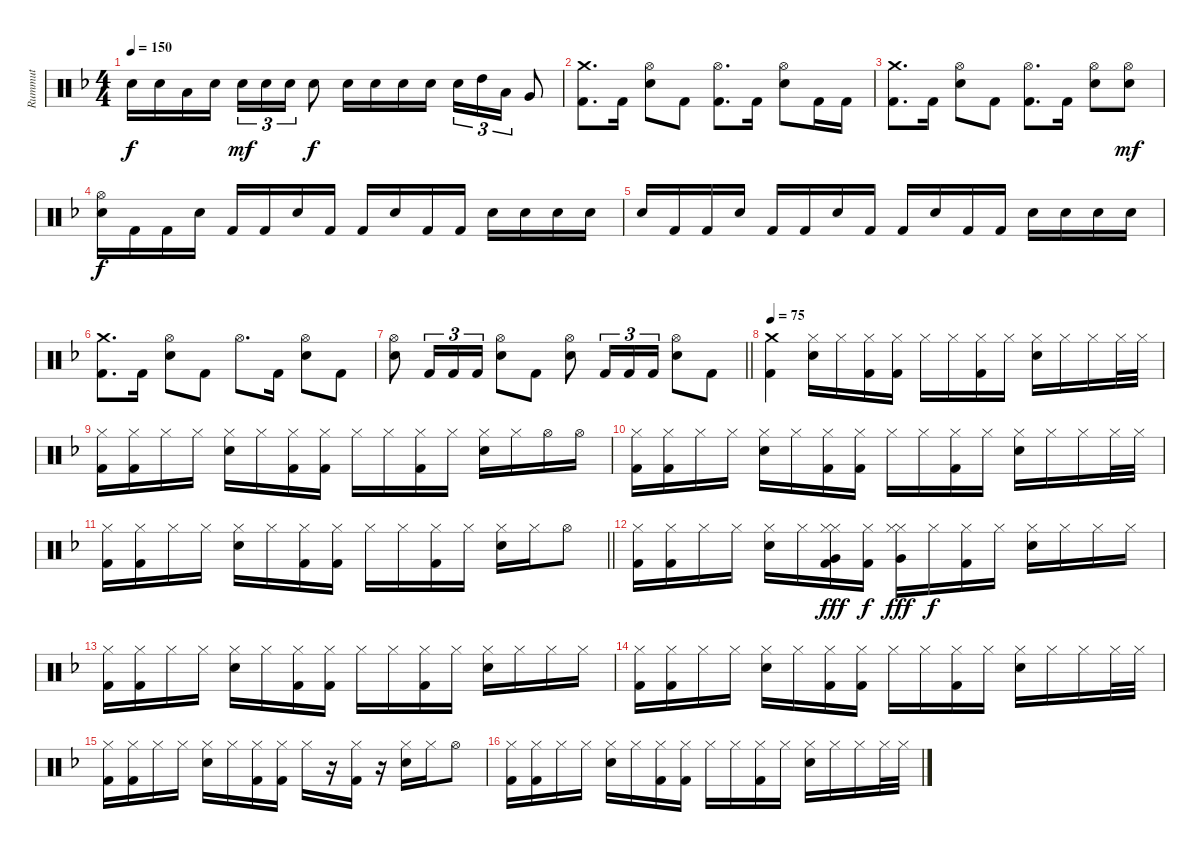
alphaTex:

\track ("Rummut" "Rummut") {instrument percussion}
\staff {score}
\articulation defaults
\ts (4 4)
\tempo 150
\clef neutral
\ks dminor "Snare (hit) 2".16{dy f} "Snare (hit) 2".16 "Low Tom (hit)".16 "Snare (hit) 2".16 "Snare (hit) 2".16{tu (3 2) dy mf} "Snare (hit) 2".16{tu (3 2)} "Snare (hit) 2".16{tu (3 2)} "Snare (hit) 2".8{dy f} "Snare (hit) 2".16 "Snare (hit) 2".16 "Snare (hit) 2".16 "Snare (hit) 2".16 "Snare (hit) 2".16{tu (3 2)} "High Tom (hit)".16{tu (3 2)} "Low Tom (hit)".16{tu (3 2)} "Very Low Tom (hit)".8
|
("Crash medium (hit)" "Kick (hit) 2").8{d} "Kick (hit) 2".16 ("Hi-Hat (open)" "Snare (hit) 2").8 "Kick (hit) 2".8 ("Hi-Hat (open)" "Kick (hit) 2").8{d} "Kick (hit) 2".16 ("Hi-Hat (open)" "Snare (hit) 2").8 "Kick (hit) 2".16 "Kick (hit) 2".16 |
("Crash medium (hit)" "Kick (hit) 2").8{d} "Kick (hit) 2".16 ("Hi-Hat (open)" "Snare (hit) 2").8 "Kick (hit) 2".8 ("Hi-Hat (open)" "Kick (hit) 2").8{d} "Kick (hit) 2".16 ("Hi-Hat (open)" "Snare (hit) 2").8 ("Hi-Hat (open)" "Snare (hit) 2").8{dy mf} |
("Hi-Hat (open)" "Snare (hit) 2").16{dy f} "Kick (hit) 2".16 "Kick (hit) 2".16 "Snare (hit) 2".16 "Kick (hit) 2".16 "Kick (hit) 2".16 "Snare (hit) 2".16 "Kick (hit) 2".16 "Kick (hit) 2".16 "Snare (hit) 2".16 "Kick (hit) 2".16 "Kick (hit) 2".16 "Snare (hit) 2".16 "Snare (hit) 2".16 "Snare (hit) 2".16 "Snare (hit) 2".16 |
"Snare (hit) 2".16 "Kick (hit) 2".16 "Kick (hit) 2".16 "Snare (hit) 2".16 "Kick (hit) 2".16 "Kick (hit) 2".16 "Snare (hit) 2".16 "Kick (hit) 2".16 "Kick (hit) 2".16 "Snare (hit) 2".16 "Kick (hit) 2".16 "Kick (hit) 2".16 "Snare (hit) 2".16 "Snare (hit) 2".16 "Snare (hit) 2".16 "Snare (hit) 2".16 |
("Crash medium (hit)" "Kick (hit) 2").8{d} "Kick (hit) 2".16 ("Hi-Hat (open)" "Snare (hit) 2").8 "Kick (hit) 2".8 "Hi-Hat (open)".8{d} "Kick (hit) 2".16 ("Hi-Hat (open)" "Snare (hit) 2").8 "Kick (hit) 2".8 |
\barLineRight lightlight
("Hi-Hat (open)" "Snare (hit) 2").8 "Kick (hit) 2".16{tu (3 2)} "Kick (hit) 2".16{tu (3 2)} "Kick (hit) 2".16{tu (3 2)} ("Hi-Hat (open)" "Snare (hit) 2").8 "Kick (hit) 2".8 ("Hi-Hat (open)" "Snare (hit) 2").8 "Kick (hit) 2".16{tu (3 2)} "Kick (hit) 2".16{tu (3 2)} "Kick (hit) 2".16{tu (3 2)} ("Hi-Hat (open)" "Snare (hit) 2").8 "Kick (hit) 2".8 |
\tempo 75
("Crash medium (hit)" "Kick (hit) 2").4 ("Hi-Hat (closed)" "Snare (hit) 2").16 "Hi-Hat (closed)".16 ("Hi-Hat (closed)" "Kick (hit) 2").16 ("Hi-Hat (closed)" "Kick (hit) 2").16 "Hi-Hat (closed)".16 "Hi-Hat (closed)".16 ("Hi-Hat (closed)" "Kick (hit) 2").16 "Hi-Hat (closed)".16 ("Hi-Hat (closed)" "Snare (hit) 2").16 "Hi-Hat (closed)".16 "Hi-Hat (closed)".16 "Hi-Hat (closed)".32 "Hi-Hat (closed)".32 |
("Hi-Hat (closed)" "Kick (hit) 2").16 ("Hi-Hat (closed)" "Kick (hit) 2").16 "Hi-Hat (closed)".16 "Hi-Hat (closed)".16 ("Hi-Hat (closed)" "Snare (hit) 2").16 "Hi-Hat (closed)".16 ("Hi-Hat (closed)" "Kick (hit) 2").16 ("Hi-Hat (closed)" "Kick (hit) 2").16 "Hi-Hat (closed)".16 "Hi-Hat (closed)".16 ("Hi-Hat (closed)" "Kick (hit) 2").16 "Hi-Hat (closed)".16 ("Hi-Hat (closed)" "Snare (hit) 2").16 "Hi-Hat (closed)".16 "Hi-Hat (open)".16 "Hi-Hat (open)".16 |
("Hi-Hat (closed)" "Kick (hit) 2").16 ("Hi-Hat (closed)" "Kick (hit) 2").16 "Hi-Hat (closed)".16 "Hi-Hat (closed)".16 ("Hi-Hat (closed)" "Snare (hit) 2").16 "Hi-Hat (closed)".16 ("Hi-Hat (closed)" "Kick (hit) 2").16 ("Hi-Hat (closed)" "Kick (hit) 2").16 "Hi-Hat (closed)".16 "Hi-Hat (closed)".16 ("Hi-Hat (closed)" "Kick (hit) 2").16 "Hi-Hat (closed)".16 ("Hi-Hat (closed)" "Snare (hit) 2").16 "Hi-Hat (closed)".16 "Hi-Hat (closed)".16 "Hi-Hat (closed)".32 "Hi-Hat (closed)".32 |
\barLineRight lightlight
("Hi-Hat (closed)" "Kick (hit) 2").16 ("Hi-Hat (closed)" "Kick (hit) 2").16 "Hi-Hat (closed)".16 "Hi-Hat (closed)".16 ("Hi-Hat (closed)" "Snare (hit) 2").16 "Hi-Hat (closed)".16 ("Hi-Hat (closed)" "Kick (hit) 2").16 ("Hi-Hat (closed)" "Kick (hit) 2").16 "Hi-Hat (closed)".16 "Hi-Hat (closed)".16 ("Hi-Hat (closed)" "Kick (hit) 2").16 "Hi-Hat (closed)".16 ("Hi-Hat (closed)" "Snare (hit) 2").16 "Hi-Hat (closed)".16 "Hi-Hat (open)".8 |
("Hi-Hat (closed)" "Kick (hit) 2").16 ("Hi-Hat (closed)" "Kick (hit) 2").16 "Hi-Hat (closed)".16 "Hi-Hat (closed)".16 ("Hi-Hat (closed)" "Snare (hit) 2").16 "Hi-Hat (closed)".16 ("Hi-Hat (closed)" "Very Low Tom (hit)" "Hi-Hat (closed)" "Kick (hit) 2").16{dy fff} ("Hi-Hat (closed)" "Kick (hit) 2").16{dy f} ("Hi-Hat (closed)" "Very Low Tom (hit)" "Hi-Hat (closed)").16{dy fff} "Hi-Hat (closed)".16{dy f} ("Hi-Hat (closed)" "Kick (hit) 2").16 "Hi-Hat (closed)".16 ("Hi-Hat (closed)" "Snare (hit) 2").16 "Hi-Hat (closed)".16 "Hi-Hat (closed)".16 "Hi-Hat (closed)".16 |
("Hi-Hat (closed)" "Kick (hit) 2").16 ("Hi-Hat (closed)" "Kick (hit) 2").16 "Hi-Hat (closed)".16 "Hi-Hat (closed)".16 ("Hi-Hat (closed)" "Snare (hit) 2").16 "Hi-Hat (closed)".16 ("Hi-Hat (closed)" "Kick (hit) 2").16 ("Hi-Hat (closed)" "Kick (hit) 2").16 "Hi-Hat (closed)".16 "Hi-Hat (closed)".16 ("Hi-Hat (closed)" "Kick (hit) 2").16 "Hi-Hat (closed)".16 ("Hi-Hat (closed)" "Snare (hit) 2").16 "Hi-Hat (closed)".16 "Hi-Hat (closed)".16 "Hi-Hat (closed)".16 |
("Hi-Hat (closed)" "Kick (hit) 2").16 ("Hi-Hat (closed)" "Kick (hit) 2").16 "Hi-Hat (closed)".16 "Hi-Hat (closed)".16 ("Hi-Hat (closed)" "Snare (hit) 2").16 "Hi-Hat (closed)".16 ("Hi-Hat (closed)" "Kick (hit) 2").16 ("Hi-Hat (closed)" "Kick (hit) 2").16 "Hi-Hat (closed)".16 "Hi-Hat (closed)".16 ("Hi-Hat (closed)" "Kick (hit) 2").16 "Hi-Hat (closed)".16 ("Hi-Hat (closed)" "Snare (hit) 2").16 "Hi-Hat (closed)".16 "Hi-Hat (closed)".16 "Hi-Hat (closed)".32 "Hi-Hat (closed)".32 |
("Hi-Hat (closed)" "Kick (hit) 2").16 ("Hi-Hat (closed)" "Kick (hit) 2").16 "Hi-Hat (closed)".16 "Hi-Hat (closed)".16 ("Hi-Hat (closed)" "Snare (hit) 2").16 "Hi-Hat (closed)".16 ("Hi-Hat (closed)" "Kick (hit) 2").16 ("Hi-Hat (closed)" "Kick (hit) 2").16 "Hi-Hat (closed)".16 r.16 ("Hi-Hat (closed)" "Kick (hit) 2").16 r.16 ("Hi-Hat (closed)" "Snare (hit) 2").16 "Hi-Hat (closed)".16 "Hi-Hat (open)".8 |
("Hi-Hat (closed)" "Kick (hit) 2").16 ("Hi-Hat (closed)" "Kick (hit) 2").16 "Hi-Hat (closed)".16 "Hi-Hat (closed)".16 ("Hi-Hat (closed)" "Snare (hit) 2").16 "Hi-Hat (closed)".16 ("Hi-Hat (closed)" "Kick (hit) 2").16 ("Hi-Hat (closed)" "Kick (hit) 2").16 "Hi-Hat (closed)".16 "Hi-Hat (closed)".16 ("Hi-Hat (closed)" "Kick (hit) 2").16 "Hi-Hat (closed)".16 ("Hi-Hat (closed)" "Snare (hit) 2").16 "Hi-Hat (closed)".16 "Hi-Hat (closed)".16 "Hi-Hat (closed)".32 "Hi-Hat (closed)".32
